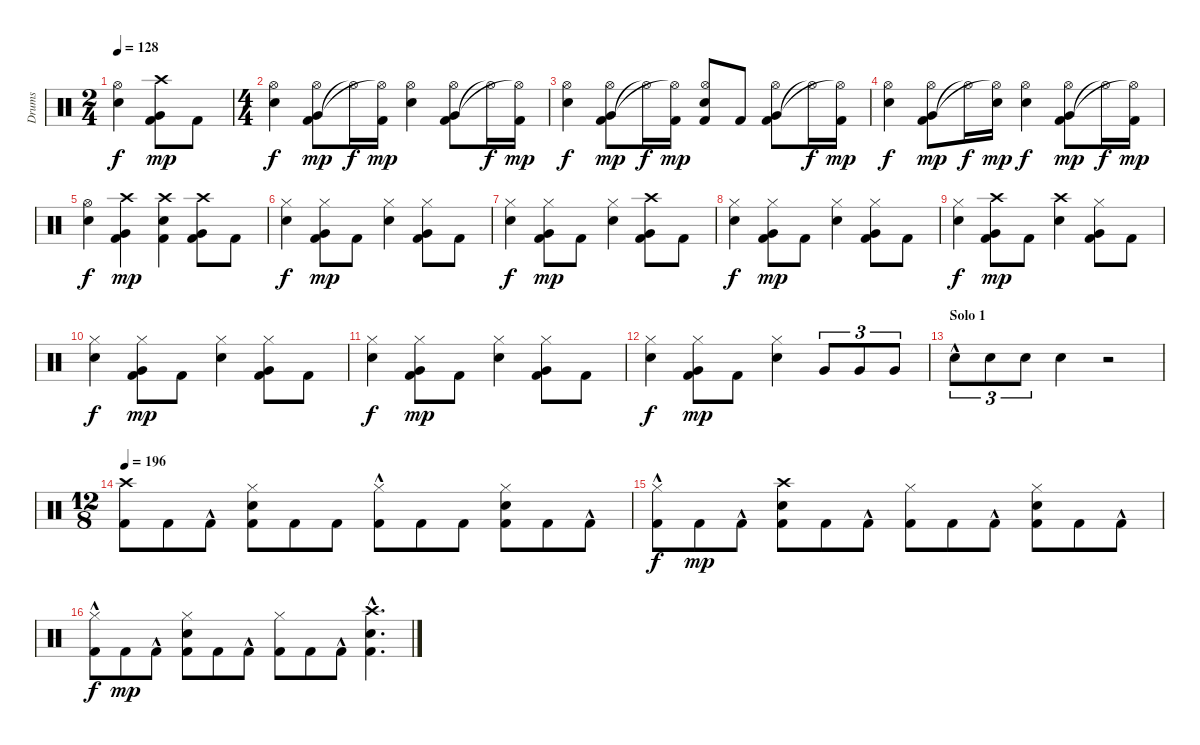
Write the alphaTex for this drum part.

\track ("Drums" "Drums") {instrument percussion}
\staff {score}
\articulation defaults
\ts (2 4)
\tempo 128
\clef neutral
\ks c
("Electric Snare (hit)" "Hi-Hat (open)").4{dy f} ("Kick (hit) 2" "Very Low Tom (hit)" "Crash high (hit)").8{dy mp} "Kick (hit) 2".8 |
\ts (4 4)
("Electric Snare (hit)" "Hi-Hat (open)").4{dy f} ("Kick (hit) 2" "Very Low Tom (hit)" "Hi-Hat (open)").8{dy mp} "Hi-Hat (open)"{t}.16{dy f} ("Kick (hit) 2" "Hi-Hat (open)"{t}).16{dy mp} ("Electric Snare (hit)" "Hi-Hat (open)").4 ("Kick (hit) 2" "Very Low Tom (hit)" "Hi-Hat (open)").8 "Hi-Hat (open)"{t}.16{dy f} ("Kick (hit) 2" "Hi-Hat (open)"{t}).16{dy mp} |
("Electric Snare (hit)" "Hi-Hat (open)").4{dy f} ("Kick (hit) 2" "Very Low Tom (hit)" "Hi-Hat (open)").8{dy mp} "Hi-Hat (open)"{t}.16{dy f} ("Kick (hit) 2" "Hi-Hat (open)"{t}).16{dy mp} ("Kick (hit) 2" "Electric Snare (hit)" "Hi-Hat (open)").8 "Kick (hit) 2".8 ("Kick (hit) 2" "Very Low Tom (hit)" "Hi-Hat (open)").8 "Hi-Hat (open)"{t}.16{dy f} ("Kick (hit) 2" "Hi-Hat (open)"{t}).16{dy mp} |
("Electric Snare (hit)" "Hi-Hat (open)").4{dy f} ("Kick (hit) 2" "Very Low Tom (hit)" "Hi-Hat (open)").8{dy mp} "Hi-Hat (open)"{t}.16{dy f} ("Electric Snare (hit)" "Hi-Hat (open)"{t}).16{dy mp} ("Electric Snare (hit)" "Hi-Hat (open)").4{dy f} ("Kick (hit) 2" "Very Low Tom (hit)" "Hi-Hat (open)").8{dy mp} "Hi-Hat (open)"{t}.16{dy f} ("Kick (hit) 2" "Hi-Hat (open)"{t}).16{dy mp} |
("Electric Snare (hit)" "Hi-Hat (open)").4{dy f} ("Kick (hit) 2" "Very Low Tom (hit)" "Crash high (hit)").4{dy mp} ("Kick (hit) 2" "Electric Snare (hit)" "Crash high (hit)").4 ("Kick (hit) 2" "Very Low Tom (hit)" "Crash high (hit)").8 "Kick (hit) 2".8 |
("Electric Snare (hit)" "Hi-Hat (closed)").4{dy f} ("Kick (hit) 2" "Very Low Tom (hit)" "Hi-Hat (closed)").8{dy mp} "Kick (hit) 2".8 ("Electric Snare (hit)" "Hi-Hat (closed)").4 ("Kick (hit) 2" "Very Low Tom (hit)" "Hi-Hat (closed)").8 "Kick (hit) 2".8 |
("Electric Snare (hit)" "Hi-Hat (closed)").4{dy f} ("Kick (hit) 2" "Very Low Tom (hit)" "Hi-Hat (closed)").8{dy mp} "Kick (hit) 2".8 ("Electric Snare (hit)" "Hi-Hat (closed)").4 ("Kick (hit) 2" "Very Low Tom (hit)" "Crash high (hit)").8 "Kick (hit) 2".8 |
("Electric Snare (hit)" "Hi-Hat (closed)").4{dy f} ("Kick (hit) 2" "Very Low Tom (hit)" "Hi-Hat (closed)").8{dy mp} "Kick (hit) 2".8 ("Electric Snare (hit)" "Hi-Hat (closed)").4 ("Kick (hit) 2" "Very Low Tom (hit)" "Hi-Hat (closed)").8 "Kick (hit) 2".8 |
("Electric Snare (hit)" "Hi-Hat (closed)").4{dy f} ("Kick (hit) 2" "Very Low Tom (hit)" "Crash high (hit)").8{dy mp} "Kick (hit) 2".8 ("Electric Snare (hit)" "Crash high (hit)").4 ("Kick (hit) 2" "Very Low Tom (hit)" "Hi-Hat (closed)").8 "Kick (hit) 2".8 |
("Electric Snare (hit)" "Hi-Hat (closed)").4{dy f} ("Kick (hit) 2" "Very Low Tom (hit)" "Hi-Hat (closed)").8{dy mp} "Kick (hit) 2".8 ("Electric Snare (hit)" "Hi-Hat (closed)").4 ("Kick (hit) 2" "Very Low Tom (hit)" "Hi-Hat (closed)").8 "Kick (hit) 2".8 |
("Electric Snare (hit)" "Hi-Hat (closed)").4{dy f} ("Kick (hit) 2" "Very Low Tom (hit)" "Hi-Hat (closed)").8{dy mp} "Kick (hit) 2".8 ("Electric Snare (hit)" "Hi-Hat (closed)").4 ("Kick (hit) 2" "Very Low Tom (hit)" "Hi-Hat (closed)").8 "Kick (hit) 2".8 |
("Electric Snare (hit)" "Hi-Hat (closed)").4{dy f} ("Kick (hit) 2" "Very Low Tom (hit)" "Hi-Hat (closed)").8{dy mp} "Kick (hit) 2".8 ("Electric Snare (hit)" "Hi-Hat (closed)").4 "Very Low Tom (hit)".8{tu (3 2)} "Very Low Tom (hit)".8{tu (3 2)} "Very Low Tom (hit)".8{tu (3 2)} |
\section ("" "Solo 1")
"Electric Snare (hit)"{hac}.8{tu (3 2)} "Electric Snare (hit)".8{tu (3 2)} "Electric Snare (hit)".8{tu (3 2)} "Electric Snare (hit)".4 r.2 |
\ts (12 8)
\tempo 196
("Kick (hit) 2" "Crash high (hit)").8 "Kick (hit) 2".8 "Kick (hit) 2"{hac}.8 ("Kick (hit) 2" "Electric Snare (hit)" "Hi-Hat (closed)").8 "Kick (hit) 2".8 "Kick (hit) 2".8 ("Kick (hit) 2"{hac} "Hi-Hat (closed)").8 "Kick (hit) 2".8 "Kick (hit) 2".8 ("Kick (hit) 2" "Electric Snare (hit)" "Hi-Hat (closed)").8 "Kick (hit) 2".8 "Kick (hit) 2"{hac}.8 |
("Kick (hit) 2" "Hi-Hat (closed)"{hac}).8{dy f} "Kick (hit) 2".8{dy mp} "Kick (hit) 2"{hac}.8 ("Kick (hit) 2" "Electric Snare (hit)" "Crash high (hit)").8 "Kick (hit) 2".8 "Kick (hit) 2"{hac}.8 ("Kick (hit) 2" "Hi-Hat (closed)").8 "Kick (hit) 2".8 "Kick (hit) 2"{hac}.8 ("Kick (hit) 2" "Electric Snare (hit)" "Hi-Hat (closed)").8 "Kick (hit) 2".8 "Kick (hit) 2"{hac}.8 |
("Kick (hit) 2" "Hi-Hat (closed)"{hac}).8{dy f} "Kick (hit) 2".8{dy mp} "Kick (hit) 2"{hac}.8 ("Kick (hit) 2" "Electric Snare (hit)" "Hi-Hat (closed)").8 "Kick (hit) 2".8 "Kick (hit) 2"{hac}.8 ("Kick (hit) 2" "Hi-Hat (closed)").8 "Kick (hit) 2".8 "Kick (hit) 2"{hac}.8 ("Kick (hit) 2"{hac} "Electric Snare (hit)"{hac} "Crash high (hit)"{hac}).4{d}
